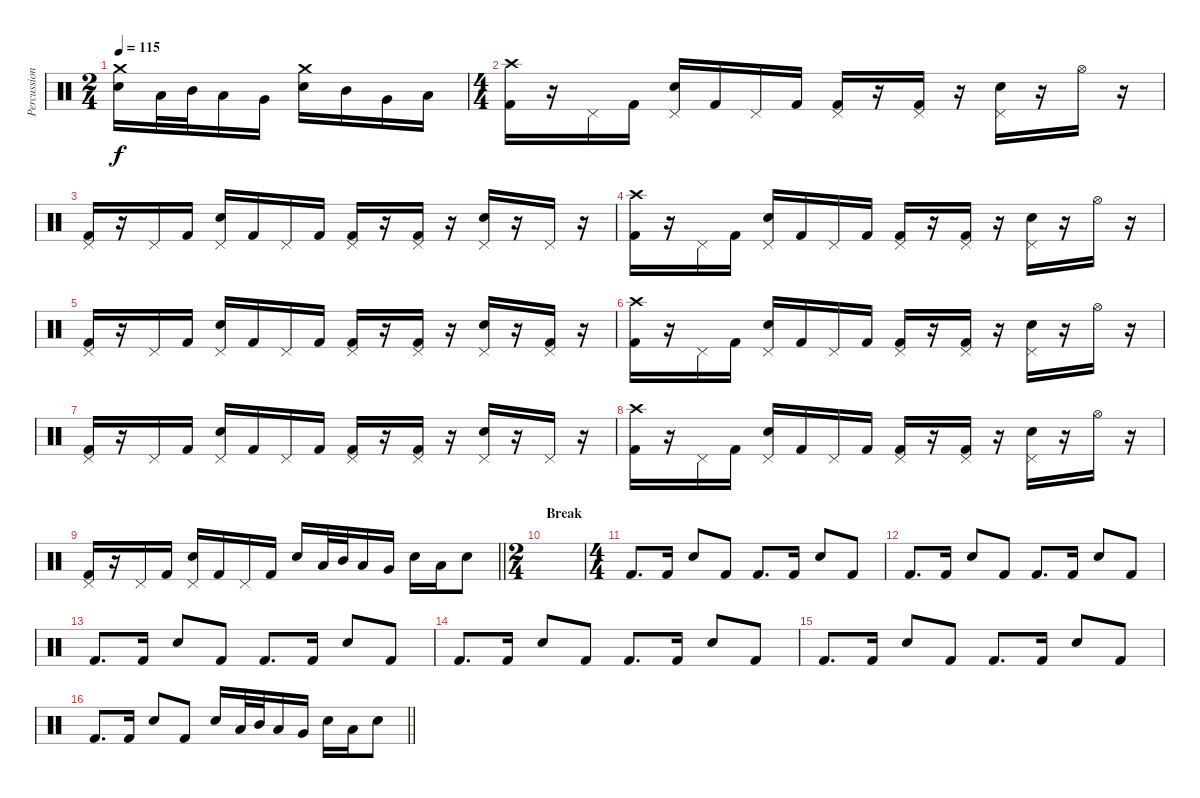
\track ("Percussion" "Percussion") {instrument percussion}
\staff {score}
\articulation defaults
\ts (2 4)
\tempo 115
\clef neutral
\ks c
("Crash medium (hit)" "Electric Snare (hit)").16{dy f} "Low Tom (hit)".32 "Mid Tom (hit)".32 "Low Tom (hit)".16 "Very Low Tom (hit)".16 ("Crash medium (hit)" "Electric Snare (hit)").16 "Mid Tom (hit)".16 "Very Low Tom (hit)".16 "Low Floor Tom (hit)".16 |
\ts (4 4)
("Crash high (hit)" "Kick (hit) 2").16 r.16 "Pedal Hi-Hat (hit)".16 "Kick (hit) 2".16 ("Pedal Hi-Hat (hit)" "Electric Snare (hit)").16 "Kick (hit) 2".16 "Pedal Hi-Hat (hit)".16 "Kick (hit) 2".16 ("Pedal Hi-Hat (hit)" "Kick (hit) 2").16 r.16 ("Pedal Hi-Hat (hit)" "Kick (hit) 2").16 r.16 ("Pedal Hi-Hat (hit)" "Electric Snare (hit)").16 r.16 "Hi-Hat (open)".16 r.16 |
("Pedal Hi-Hat (hit)" "Kick (hit) 2").16 r.16 "Pedal Hi-Hat (hit)".16 "Kick (hit) 2".16 ("Pedal Hi-Hat (hit)" "Electric Snare (hit)").16 "Kick (hit) 2".16 "Pedal Hi-Hat (hit)".16 "Kick (hit) 2".16 ("Pedal Hi-Hat (hit)" "Kick (hit) 2").16 r.16 ("Pedal Hi-Hat (hit)" "Kick (hit) 2").16 r.16 ("Pedal Hi-Hat (hit)" "Electric Snare (hit)").16 r.16 "Pedal Hi-Hat (hit)".16 r.16 |
("Crash high (hit)" "Kick (hit) 2").16 r.16 "Pedal Hi-Hat (hit)".16 "Kick (hit) 2".16 ("Pedal Hi-Hat (hit)" "Electric Snare (hit)").16 "Kick (hit) 2".16 "Pedal Hi-Hat (hit)".16 "Kick (hit) 2".16 ("Pedal Hi-Hat (hit)" "Kick (hit) 2").16 r.16 ("Pedal Hi-Hat (hit)" "Kick (hit) 2").16 r.16 ("Pedal Hi-Hat (hit)" "Electric Snare (hit)").16 r.16 "Hi-Hat (open)".16 r.16 |
("Pedal Hi-Hat (hit)" "Kick (hit) 2").16 r.16 "Pedal Hi-Hat (hit)".16 "Kick (hit) 2".16 ("Pedal Hi-Hat (hit)" "Electric Snare (hit)").16 "Kick (hit) 2".16 "Pedal Hi-Hat (hit)".16 "Kick (hit) 2".16 ("Pedal Hi-Hat (hit)" "Kick (hit) 2").16 r.16 ("Pedal Hi-Hat (hit)" "Kick (hit) 2").16 r.16 ("Pedal Hi-Hat (hit)" "Electric Snare (hit)").16 r.16 ("Pedal Hi-Hat (hit)" "Kick (hit) 2").16 r.16 |
("Crash high (hit)" "Kick (hit) 2").16 r.16 "Pedal Hi-Hat (hit)".16 "Kick (hit) 2".16 ("Pedal Hi-Hat (hit)" "Electric Snare (hit)").16 "Kick (hit) 2".16 "Pedal Hi-Hat (hit)".16 "Kick (hit) 2".16 ("Pedal Hi-Hat (hit)" "Kick (hit) 2").16 r.16 ("Pedal Hi-Hat (hit)" "Kick (hit) 2").16 r.16 ("Pedal Hi-Hat (hit)" "Electric Snare (hit)").16 r.16 "Hi-Hat (open)".16 r.16 |
("Pedal Hi-Hat (hit)" "Kick (hit) 2").16 r.16 "Pedal Hi-Hat (hit)".16 "Kick (hit) 2".16 ("Pedal Hi-Hat (hit)" "Electric Snare (hit)").16 "Kick (hit) 2".16 "Pedal Hi-Hat (hit)".16 "Kick (hit) 2".16 ("Pedal Hi-Hat (hit)" "Kick (hit) 2").16 r.16 ("Pedal Hi-Hat (hit)" "Kick (hit) 2").16 r.16 ("Pedal Hi-Hat (hit)" "Electric Snare (hit)").16 r.16 "Pedal Hi-Hat (hit)".16 r.16 |
("Crash high (hit)" "Kick (hit) 2").16 r.16 "Pedal Hi-Hat (hit)".16 "Kick (hit) 2".16 ("Pedal Hi-Hat (hit)" "Electric Snare (hit)").16 "Kick (hit) 2".16 "Pedal Hi-Hat (hit)".16 "Kick (hit) 2".16 ("Pedal Hi-Hat (hit)" "Kick (hit) 2").16 r.16 ("Pedal Hi-Hat (hit)" "Kick (hit) 2").16 r.16 ("Pedal Hi-Hat (hit)" "Electric Snare (hit)").16 r.16 "Hi-Hat (open)".16 r.16 |
\barLineRight lightlight
("Pedal Hi-Hat (hit)" "Kick (hit) 2").16 r.16 "Pedal Hi-Hat (hit)".16 "Kick (hit) 2".16 ("Pedal Hi-Hat (hit)" "Electric Snare (hit)").16 "Kick (hit) 2".16 "Pedal Hi-Hat (hit)".16 "Kick (hit) 2".16 "Snare (hit) 2".16 "Low Tom (hit)".32 "Mid Tom (hit)".32 "Low Tom (hit)".16 "Very Low Tom (hit)".16 "Snare (hit) 2".16 "Low Tom (hit)".16 "Snare (hit) 2".8 |
\ts (2 4)
\section ("" "Break")
|
\ts (4 4)
"Kick (hit) 2".8{d} "Kick (hit) 2".16 "Electric Snare (hit)".8 "Kick (hit) 2".8 "Kick (hit) 2".8{d} "Kick (hit) 2".16 "Electric Snare (hit)".8 "Kick (hit) 2".8 |
"Kick (hit) 2".8{d} "Kick (hit) 2".16 "Electric Snare (hit)".8 "Kick (hit) 2".8 "Kick (hit) 2".8{d} "Kick (hit) 2".16 "Electric Snare (hit)".8 "Kick (hit) 2".8 |
"Kick (hit) 2".8{d} "Kick (hit) 2".16 "Electric Snare (hit)".8 "Kick (hit) 2".8 "Kick (hit) 2".8{d} "Kick (hit) 2".16 "Electric Snare (hit)".8 "Kick (hit) 2".8 |
"Kick (hit) 2".8{d} "Kick (hit) 2".16 "Electric Snare (hit)".8 "Kick (hit) 2".8 "Kick (hit) 2".8{d} "Kick (hit) 2".16 "Electric Snare (hit)".8 "Kick (hit) 2".8 |
"Kick (hit) 2".8{d} "Kick (hit) 2".16 "Electric Snare (hit)".8 "Kick (hit) 2".8 "Kick (hit) 2".8{d} "Kick (hit) 2".16 "Electric Snare (hit)".8 "Kick (hit) 2".8 |
\barLineRight lightlight "Kick (hit) 2".8{d} "Kick (hit) 2".16 "Electric Snare (hit)".8 "Kick (hit) 2".8 "Snare (hit) 2".16 "Low Tom (hit)".32{volume 13} "Mid Tom (hit)".32 "Low Tom (hit)".16 "Very Low Tom (hit)".16 "Snare (hit) 2".16 "Low Tom (hit)".16 "Snare (hit) 2".8
